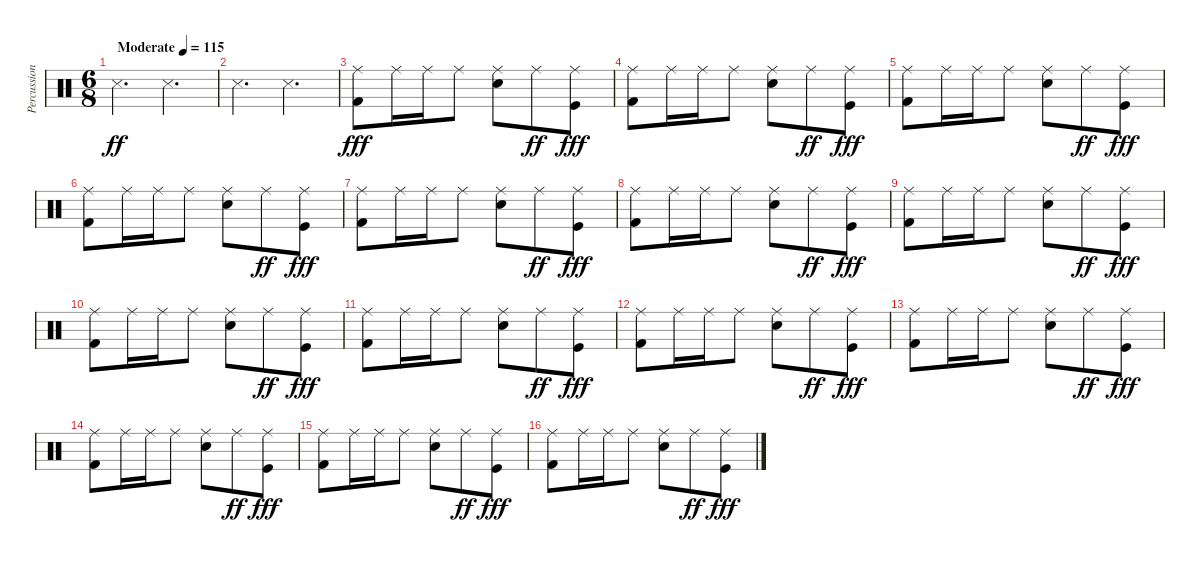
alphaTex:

\track ("Percussions" "Percussion") {instrument percussion}
\staff {score}
\articulation defaults
\ts (6 8)
\tempo (115 "Moderate")
\clef neutral
\ks c "Snare (side stick) 3".4{d dy ff} "Snare (side stick) 3".4{d}
|
"Snare (side stick) 3".4{d} "Snare (side stick) 3".4{d} |
("Kick (hit) 2" "Ride (middle)").8{dy fff} "Ride (middle)".16 "Ride (middle)".16 "Ride (middle)".8 ("Snare (hit) 2" "Ride (middle)").8 "Ride (middle)".8{dy ff} ("Kick (hit)" "Ride (middle)").8{dy fff} |
("Kick (hit) 2" "Ride (middle)").8 "Ride (middle)".16 "Ride (middle)".16 "Ride (middle)".8 ("Snare (hit) 2" "Ride (middle)").8 "Ride (middle)".8{dy ff} ("Kick (hit)" "Ride (middle)").8{dy fff} |
("Kick (hit) 2" "Ride (middle)").8 "Ride (middle)".16 "Ride (middle)".16 "Ride (middle)".8 ("Snare (hit) 2" "Ride (middle)").8 "Ride (middle)".8{dy ff} ("Kick (hit)" "Ride (middle)").8{dy fff} |
("Kick (hit) 2" "Ride (middle)").8 "Ride (middle)".16 "Ride (middle)".16 "Ride (middle)".8 ("Snare (hit) 2" "Ride (middle)").8 "Ride (middle)".8{dy ff} ("Kick (hit)" "Ride (middle)").8{dy fff} |
("Kick (hit) 2" "Ride (middle)").8 "Ride (middle)".16 "Ride (middle)".16 "Ride (middle)".8 ("Snare (hit) 2" "Ride (middle)").8 "Ride (middle)".8{dy ff} ("Kick (hit)" "Ride (middle)").8{dy fff} |
("Kick (hit) 2" "Ride (middle)").8 "Ride (middle)".16 "Ride (middle)".16 "Ride (middle)".8 ("Snare (hit) 2" "Ride (middle)").8 "Ride (middle)".8{dy ff} ("Kick (hit)" "Ride (middle)").8{dy fff} |
("Kick (hit) 2" "Ride (middle)").8 "Ride (middle)".16 "Ride (middle)".16 "Ride (middle)".8 ("Snare (hit) 2" "Ride (middle)").8 "Ride (middle)".8{dy ff} ("Kick (hit)" "Ride (middle)").8{dy fff} |
("Kick (hit) 2" "Ride (middle)").8 "Ride (middle)".16 "Ride (middle)".16 "Ride (middle)".8 ("Snare (hit) 2" "Ride (middle)").8 "Ride (middle)".8{dy ff} ("Kick (hit)" "Ride (middle)").8{dy fff} |
("Kick (hit) 2" "Ride (middle)").8 "Ride (middle)".16 "Ride (middle)".16 "Ride (middle)".8 ("Snare (hit) 2" "Ride (middle)").8 "Ride (middle)".8{dy ff} ("Kick (hit)" "Ride (middle)").8{dy fff} |
("Kick (hit) 2" "Ride (middle)").8 "Ride (middle)".16 "Ride (middle)".16 "Ride (middle)".8 ("Snare (hit) 2" "Ride (middle)").8 "Ride (middle)".8{dy ff} ("Kick (hit)" "Ride (middle)").8{dy fff} |
("Kick (hit) 2" "Ride (middle)").8 "Ride (middle)".16 "Ride (middle)".16 "Ride (middle)".8 ("Snare (hit) 2" "Ride (middle)").8 "Ride (middle)".8{dy ff} ("Kick (hit)" "Ride (middle)").8{dy fff} |
("Kick (hit) 2" "Ride (middle)").8 "Ride (middle)".16 "Ride (middle)".16 "Ride (middle)".8 ("Snare (hit) 2" "Ride (middle)").8 "Ride (middle)".8{dy ff} ("Kick (hit)" "Ride (middle)").8{dy fff} |
("Kick (hit) 2" "Ride (middle)").8 "Ride (middle)".16 "Ride (middle)".16 "Ride (middle)".8 ("Snare (hit) 2" "Ride (middle)").8 "Ride (middle)".8{dy ff} ("Kick (hit)" "Ride (middle)").8{dy fff} |
("Kick (hit) 2" "Ride (middle)").8 "Ride (middle)".16 "Ride (middle)".16 "Ride (middle)".8 ("Snare (hit) 2" "Ride (middle)").8 "Ride (middle)".8{dy ff} ("Kick (hit)" "Ride (middle)").8{dy fff}
